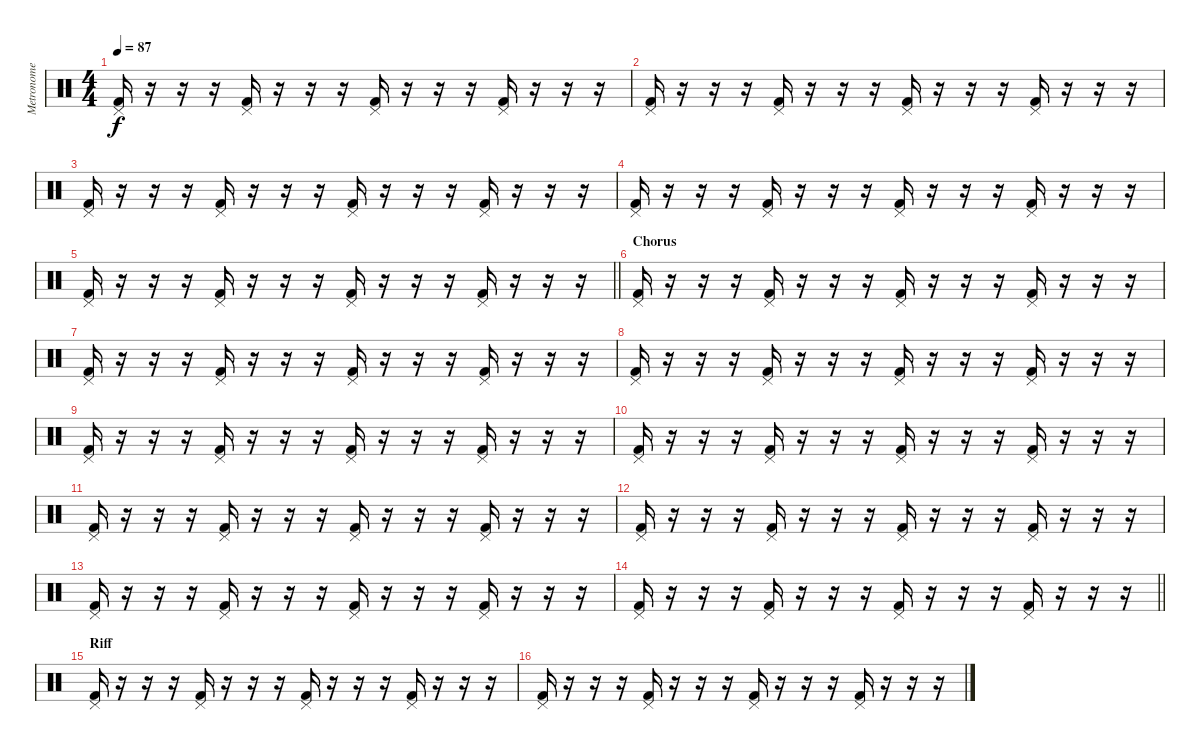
\track ("Metronome" "Metronome") {mute instrument percussion}
\staff {score}
\articulation defaults
\ts (4 4)
\tempo 87
\clef neutral
\ks c
("Pedal Hi-Hat (hit)" "Kick (hit) 2").16{dy f} r.16 r.16 r.16 ("Pedal Hi-Hat (hit)" "Kick (hit) 2").16 r.16 r.16 r.16 ("Pedal Hi-Hat (hit)" "Kick (hit) 2").16 r.16 r.16 r.16 ("Pedal Hi-Hat (hit)" "Kick (hit) 2").16 r.16 r.16 r.16 |
("Pedal Hi-Hat (hit)" "Kick (hit) 2").16 r.16 r.16 r.16 ("Pedal Hi-Hat (hit)" "Kick (hit) 2").16 r.16 r.16 r.16 ("Pedal Hi-Hat (hit)" "Kick (hit) 2").16 r.16 r.16 r.16 ("Pedal Hi-Hat (hit)" "Kick (hit) 2").16 r.16 r.16 r.16 |
("Pedal Hi-Hat (hit)" "Kick (hit) 2").16 r.16 r.16 r.16 ("Pedal Hi-Hat (hit)" "Kick (hit) 2").16 r.16 r.16 r.16 ("Pedal Hi-Hat (hit)" "Kick (hit) 2").16 r.16 r.16 r.16 ("Pedal Hi-Hat (hit)" "Kick (hit) 2").16 r.16 r.16 r.16 |
("Pedal Hi-Hat (hit)" "Kick (hit) 2").16 r.16 r.16 r.16 ("Pedal Hi-Hat (hit)" "Kick (hit) 2").16 r.16 r.16 r.16 ("Pedal Hi-Hat (hit)" "Kick (hit) 2").16 r.16 r.16 r.16 ("Pedal Hi-Hat (hit)" "Kick (hit) 2").16 r.16 r.16 r.16 |
\barLineRight lightlight
("Pedal Hi-Hat (hit)" "Kick (hit) 2").16 r.16 r.16 r.16 ("Pedal Hi-Hat (hit)" "Kick (hit) 2").16 r.16 r.16 r.16 ("Pedal Hi-Hat (hit)" "Kick (hit) 2").16 r.16 r.16 r.16 ("Pedal Hi-Hat (hit)" "Kick (hit) 2").16 r.16 r.16 r.16 |
\section ("" "Chorus")
("Pedal Hi-Hat (hit)" "Kick (hit) 2").16 r.16 r.16 r.16 ("Pedal Hi-Hat (hit)" "Kick (hit) 2").16 r.16 r.16 r.16 ("Pedal Hi-Hat (hit)" "Kick (hit) 2").16 r.16 r.16 r.16 ("Pedal Hi-Hat (hit)" "Kick (hit) 2").16 r.16 r.16 r.16 |
("Pedal Hi-Hat (hit)" "Kick (hit) 2").16 r.16 r.16 r.16 ("Pedal Hi-Hat (hit)" "Kick (hit) 2").16 r.16 r.16 r.16 ("Pedal Hi-Hat (hit)" "Kick (hit) 2").16 r.16 r.16 r.16 ("Pedal Hi-Hat (hit)" "Kick (hit) 2").16 r.16 r.16 r.16 |
("Pedal Hi-Hat (hit)" "Kick (hit) 2").16 r.16 r.16 r.16 ("Pedal Hi-Hat (hit)" "Kick (hit) 2").16 r.16 r.16 r.16 ("Pedal Hi-Hat (hit)" "Kick (hit) 2").16 r.16 r.16 r.16 ("Pedal Hi-Hat (hit)" "Kick (hit) 2").16 r.16 r.16 r.16 |
("Pedal Hi-Hat (hit)" "Kick (hit) 2").16 r.16 r.16 r.16 ("Pedal Hi-Hat (hit)" "Kick (hit) 2").16 r.16 r.16 r.16 ("Pedal Hi-Hat (hit)" "Kick (hit) 2").16 r.16 r.16 r.16 ("Pedal Hi-Hat (hit)" "Kick (hit) 2").16 r.16 r.16 r.16 |
("Pedal Hi-Hat (hit)" "Kick (hit) 2").16 r.16 r.16 r.16 ("Pedal Hi-Hat (hit)" "Kick (hit) 2").16 r.16 r.16 r.16 ("Pedal Hi-Hat (hit)" "Kick (hit) 2").16 r.16 r.16 r.16 ("Pedal Hi-Hat (hit)" "Kick (hit) 2").16 r.16 r.16 r.16 |
("Pedal Hi-Hat (hit)" "Kick (hit) 2").16 r.16 r.16 r.16 ("Pedal Hi-Hat (hit)" "Kick (hit) 2").16 r.16 r.16 r.16 ("Pedal Hi-Hat (hit)" "Kick (hit) 2").16 r.16 r.16 r.16 ("Pedal Hi-Hat (hit)" "Kick (hit) 2").16 r.16 r.16 r.16 |
("Pedal Hi-Hat (hit)" "Kick (hit) 2").16 r.16 r.16 r.16 ("Pedal Hi-Hat (hit)" "Kick (hit) 2").16 r.16 r.16 r.16 ("Pedal Hi-Hat (hit)" "Kick (hit) 2").16 r.16 r.16 r.16 ("Pedal Hi-Hat (hit)" "Kick (hit) 2").16 r.16 r.16 r.16 |
("Pedal Hi-Hat (hit)" "Kick (hit) 2").16 r.16 r.16 r.16 ("Pedal Hi-Hat (hit)" "Kick (hit) 2").16 r.16 r.16 r.16 ("Pedal Hi-Hat (hit)" "Kick (hit) 2").16 r.16 r.16 r.16 ("Pedal Hi-Hat (hit)" "Kick (hit) 2").16 r.16 r.16 r.16 |
\barLineRight lightlight
("Pedal Hi-Hat (hit)" "Kick (hit) 2").16 r.16 r.16 r.16 ("Pedal Hi-Hat (hit)" "Kick (hit) 2").16 r.16 r.16 r.16 ("Pedal Hi-Hat (hit)" "Kick (hit) 2").16 r.16 r.16 r.16 ("Pedal Hi-Hat (hit)" "Kick (hit) 2").16 r.16 r.16 r.16 |
\section ("" "Riff")
("Pedal Hi-Hat (hit)" "Kick (hit) 2").16 r.16 r.16 r.16 ("Pedal Hi-Hat (hit)" "Kick (hit) 2").16 r.16 r.16 r.16 ("Pedal Hi-Hat (hit)" "Kick (hit) 2").16 r.16 r.16 r.16 ("Pedal Hi-Hat (hit)" "Kick (hit) 2").16 r.16 r.16 r.16 |
("Pedal Hi-Hat (hit)" "Kick (hit) 2").16 r.16 r.16 r.16 ("Pedal Hi-Hat (hit)" "Kick (hit) 2").16 r.16 r.16 r.16 ("Pedal Hi-Hat (hit)" "Kick (hit) 2").16 r.16 r.16 r.16 ("Pedal Hi-Hat (hit)" "Kick (hit) 2").16 r.16 r.16 r.16
